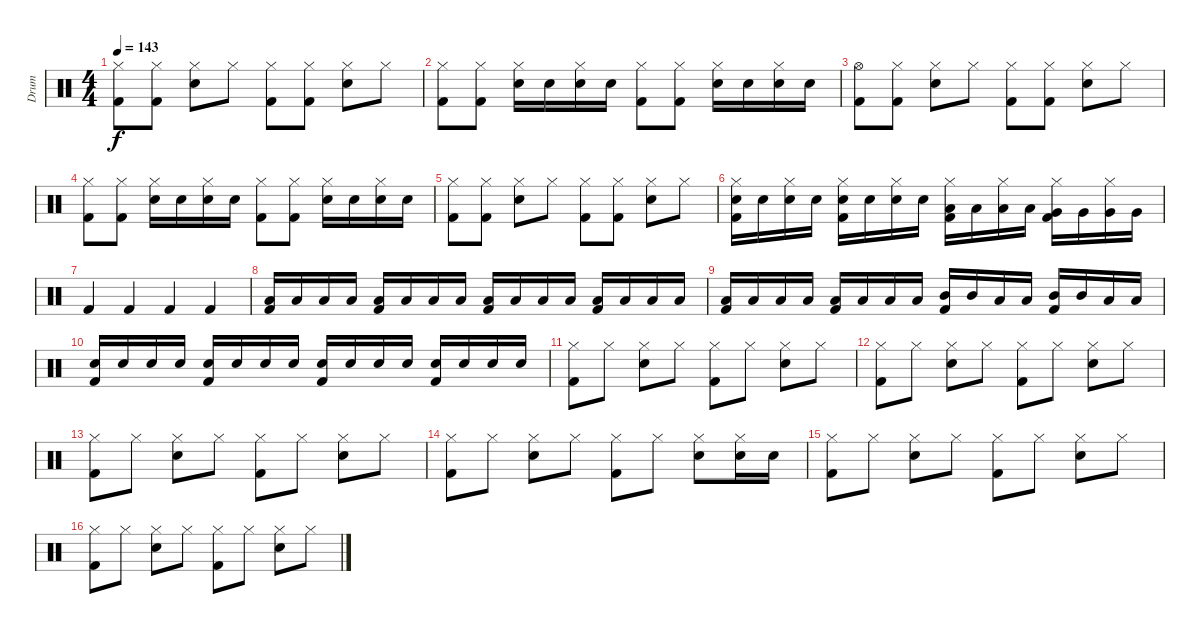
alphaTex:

\track ("Drum" "Drum") {instrument percussion}
\staff {score}
\articulation defaults
\ts (4 4)
\tempo 143
\clef neutral
\ks c
("Hi-Hat (closed)" "Kick (hit) 2").8{dy f} ("Hi-Hat (closed)" "Kick (hit) 2").8 ("Hi-Hat (closed)" "Electric Snare (hit)").8 "Hi-Hat (closed)".8 ("Hi-Hat (closed)" "Kick (hit) 2").8 ("Hi-Hat (closed)" "Kick (hit) 2").8 ("Hi-Hat (closed)" "Electric Snare (hit)").8 "Hi-Hat (closed)".8 |
("Hi-Hat (closed)" "Kick (hit) 2").8 ("Hi-Hat (closed)" "Kick (hit) 2").8 ("Hi-Hat (closed)" "Electric Snare (hit)").16 "Electric Snare (hit)".16 ("Hi-Hat (closed)" "Electric Snare (hit)").16 "Electric Snare (hit)".16 ("Hi-Hat (closed)" "Kick (hit) 2").8 ("Hi-Hat (closed)" "Kick (hit) 2").8 ("Hi-Hat (closed)" "Electric Snare (hit)").16 "Electric Snare (hit)".16 ("Hi-Hat (closed)" "Electric Snare (hit)").16 "Electric Snare (hit)".16 |
("Hi-Hat (open)" "Kick (hit) 2").8 ("Hi-Hat (closed)" "Kick (hit) 2").8 ("Hi-Hat (closed)" "Electric Snare (hit)").8 "Hi-Hat (closed)".8 ("Hi-Hat (closed)" "Kick (hit) 2").8 ("Hi-Hat (closed)" "Kick (hit) 2").8 ("Hi-Hat (closed)" "Electric Snare (hit)").8 "Hi-Hat (closed)".8 |
("Hi-Hat (closed)" "Kick (hit) 2").8 ("Hi-Hat (closed)" "Kick (hit) 2").8 ("Hi-Hat (closed)" "Electric Snare (hit)").16 "Electric Snare (hit)".16 ("Hi-Hat (closed)" "Electric Snare (hit)").16 "Electric Snare (hit)".16 ("Hi-Hat (closed)" "Kick (hit) 2").8 ("Hi-Hat (closed)" "Kick (hit) 2").8 ("Hi-Hat (closed)" "Electric Snare (hit)").16 "Electric Snare (hit)".16 ("Hi-Hat (closed)" "Electric Snare (hit)").16 "Electric Snare (hit)".16 |
("Hi-Hat (closed)" "Kick (hit) 2").8 ("Hi-Hat (closed)" "Kick (hit) 2").8 ("Hi-Hat (closed)" "Electric Snare (hit)").8 "Hi-Hat (closed)".8 ("Hi-Hat (closed)" "Kick (hit) 2").8 ("Hi-Hat (closed)" "Kick (hit) 2").8 ("Hi-Hat (closed)" "Electric Snare (hit)").8 "Hi-Hat (closed)".8 |
("Hi-Hat (closed)" "Electric Snare (hit)" "Kick (hit) 2").16 "Electric Snare (hit)".16 ("Hi-Hat (closed)" "Electric Snare (hit)").16 "Electric Snare (hit)".16 ("Hi-Hat (closed)" "Electric Snare (hit)" "Kick (hit) 2").16 "Electric Snare (hit)".16 ("Hi-Hat (closed)" "Electric Snare (hit)").16 "Electric Snare (hit)".16 ("Hi-Hat (closed)" "Low Tom (hit)" "Kick (hit) 2").16 "Low Tom (hit)".16 ("Hi-Hat (closed)" "Low Tom (hit)").16 "Low Tom (hit)".16 ("Hi-Hat (closed)" "Very Low Tom (hit)" "Kick (hit) 2").16 "Very Low Tom (hit)".16 ("Hi-Hat (closed)" "Very Low Tom (hit)").16 "Very Low Tom (hit)".16 |
"Kick (hit) 2".4 "Kick (hit) 2".4 "Kick (hit) 2".4 "Kick (hit) 2".4 |
("Low Tom (hit)" "Kick (hit) 2").16 "Low Tom (hit)".16 "Low Tom (hit)".16 "Low Tom (hit)".16 ("Low Tom (hit)" "Kick (hit) 2").16 "Low Tom (hit)".16 "Low Tom (hit)".16 "Low Tom (hit)".16 ("Low Tom (hit)" "Kick (hit) 2").16 "Low Tom (hit)".16 "Low Tom (hit)".16 "Low Tom (hit)".16 ("Low Tom (hit)" "Kick (hit) 2").16 "Low Tom (hit)".16 "Low Tom (hit)".16 "Low Tom (hit)".16 |
("Low Tom (hit)" "Kick (hit) 2").16 "Low Tom (hit)".16 "Low Tom (hit)".16 "Low Tom (hit)".16 ("Low Tom (hit)" "Kick (hit) 2").16 "Low Tom (hit)".16 "Low Tom (hit)".16 "Low Tom (hit)".16 ("Mid Tom (hit)" "Kick (hit) 2").16 "Mid Tom (hit)".16 "Low Tom (hit)".16 "Low Tom (hit)".16 ("Mid Tom (hit)" "Kick (hit) 2").16 "Mid Tom (hit)".16 "Low Tom (hit)".16 "Low Tom (hit)".16 |
("Electric Snare (hit)" "Kick (hit) 2").16 "Electric Snare (hit)".16 "Electric Snare (hit)".16 "Electric Snare (hit)".16 ("Electric Snare (hit)" "Kick (hit) 2").16 "Electric Snare (hit)".16 "Electric Snare (hit)".16 "Electric Snare (hit)".16 ("Electric Snare (hit)" "Kick (hit) 2").16 "Electric Snare (hit)".16 "Electric Snare (hit)".16 "Electric Snare (hit)".16 ("Electric Snare (hit)" "Kick (hit) 2").16 "Electric Snare (hit)".16 "Electric Snare (hit)".16 "Electric Snare (hit)".16 |
("Hi-Hat (closed)" "Kick (hit) 2").8 "Hi-Hat (closed)".8 ("Hi-Hat (closed)" "Electric Snare (hit)").8 "Hi-Hat (closed)".8 ("Hi-Hat (closed)" "Kick (hit) 2").8 "Hi-Hat (closed)".8 ("Hi-Hat (closed)" "Electric Snare (hit)").8 "Hi-Hat (closed)".8 |
("Hi-Hat (closed)" "Kick (hit) 2").8 "Hi-Hat (closed)".8 ("Hi-Hat (closed)" "Electric Snare (hit)").8 "Hi-Hat (closed)".8 ("Hi-Hat (closed)" "Kick (hit) 2").8 "Hi-Hat (closed)".8 ("Hi-Hat (closed)" "Electric Snare (hit)").8 "Hi-Hat (closed)".8 |
("Hi-Hat (closed)" "Kick (hit) 2").8 "Hi-Hat (closed)".8 ("Hi-Hat (closed)" "Electric Snare (hit)").8 "Hi-Hat (closed)".8 ("Hi-Hat (closed)" "Kick (hit) 2").8 "Hi-Hat (closed)".8 ("Hi-Hat (closed)" "Electric Snare (hit)").8 "Hi-Hat (closed)".8 |
("Hi-Hat (closed)" "Kick (hit) 2").8 "Hi-Hat (closed)".8 ("Hi-Hat (closed)" "Electric Snare (hit)").8 "Hi-Hat (closed)".8 ("Hi-Hat (closed)" "Kick (hit) 2").8 "Hi-Hat (closed)".8 ("Hi-Hat (closed)" "Electric Snare (hit)").8 ("Hi-Hat (closed)" "Electric Snare (hit)").16 "Electric Snare (hit)".16 |
("Hi-Hat (closed)" "Kick (hit) 2").8 "Hi-Hat (closed)".8 ("Hi-Hat (closed)" "Electric Snare (hit)").8 "Hi-Hat (closed)".8 ("Hi-Hat (closed)" "Kick (hit) 2").8 "Hi-Hat (closed)".8 ("Hi-Hat (closed)" "Electric Snare (hit)").8 "Hi-Hat (closed)".8 |
("Hi-Hat (closed)" "Kick (hit) 2").8 "Hi-Hat (closed)".8 ("Hi-Hat (closed)" "Electric Snare (hit)").8 "Hi-Hat (closed)".8 ("Hi-Hat (closed)" "Kick (hit) 2").8 "Hi-Hat (closed)".8 ("Hi-Hat (closed)" "Electric Snare (hit)").8 "Hi-Hat (closed)".8
